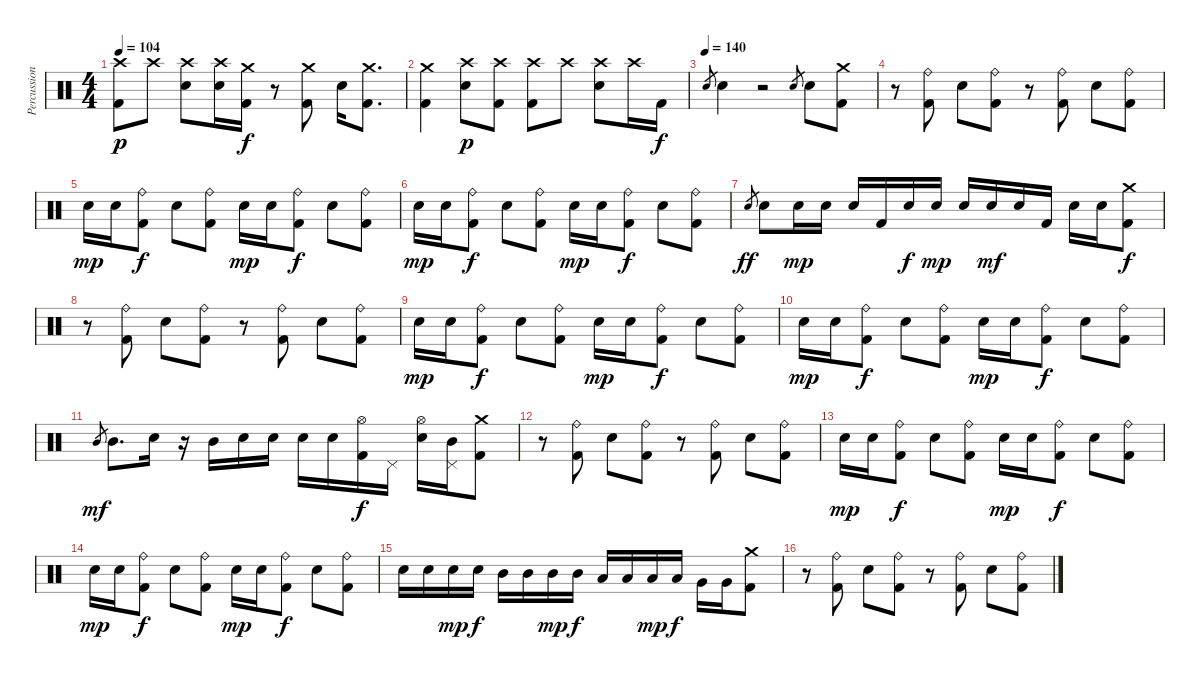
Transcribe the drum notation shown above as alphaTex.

\track ("Percussion" "Percussion") {instrument percussion}
\staff {score}
\articulation defaults
\ts (4 4)
\tempo 104
\clef neutral
\ks c
("Kick (hit) 2" "Crash high (hit)").8{dy p} "Crash high (hit)".8 ("Electric Snare (hit)" "Crash high (hit)").8 ("Electric Snare (hit)" "Crash high (hit)").16 ("Kick (hit) 2" "Crash medium (hit)").16{dy f} r.8 ("Kick (hit) 2" "Crash medium (hit)").8 "Electric Snare (hit)".16 ("Kick (hit) 2" "Crash medium (hit)").8{d} |
("Crash medium (hit)" "Kick (hit) 2").4 ("Electric Snare (hit)" "Crash high (hit)").8{dy p} ("Kick (hit) 2" "Crash high (hit)").8 ("Kick (hit) 2" "Crash high (hit)").8 "Crash high (hit)".8 ("Electric Snare (hit)" "Crash high (hit)").8 "Crash high (hit)".16 "Kick (hit) 2".16{dy f} |
\tempo (140)
"Electric Snare (hit)".8{gr} "Electric Snare (hit)".4 r.2 "Electric Snare (hit)".8{gr} "Electric Snare (hit)".8 ("Kick (hit) 2" "Crash medium (hit)").8 |
r.8 ("Kick (hit) 2" "Ride (bell)").8 "Electric Snare (hit)".8 ("Kick (hit) 2" "Ride (bell)").8 r.8 ("Kick (hit) 2" "Ride (bell)").8 "Electric Snare (hit)".8 ("Kick (hit) 2" "Ride (bell)").8 |
"Electric Snare (hit)".16{dy mp} "Electric Snare (hit)".16 ("Kick (hit) 2" "Ride (bell)").8{dy f} "Electric Snare (hit)".8 ("Kick (hit) 2" "Ride (bell)").8 "Electric Snare (hit)".16{dy mp} "Electric Snare (hit)".16 ("Kick (hit) 2" "Ride (bell)").8{dy f} "Electric Snare (hit)".8 ("Kick (hit) 2" "Ride (bell)").8 |
"Electric Snare (hit)".16{dy mp} "Electric Snare (hit)".16 ("Kick (hit) 2" "Ride (bell)").8{dy f} "Electric Snare (hit)".8 ("Kick (hit) 2" "Ride (bell)").8 "Electric Snare (hit)".16{dy mp} "Electric Snare (hit)".16 ("Kick (hit) 2" "Ride (bell)").8{dy f} "Electric Snare (hit)".8 ("Kick (hit) 2" "Ride (bell)").8 |
"Electric Snare (hit)".8{gr dy ff} "Electric Snare (hit)".8 "Electric Snare (hit)".16{dy mp} "Electric Snare (hit)".16 "Electric Snare (hit)".16 "Kick (hit) 2".16 "Electric Snare (hit)".16{dy f} "Electric Snare (hit)".16{dy mp} "Electric Snare (hit)".16 "Electric Snare (hit)".16{dy mf} "Electric Snare (hit)".16 "Kick (hit) 2".16 "Electric Snare (hit)".16 "Electric Snare (hit)".16 ("Kick (hit) 2" "Crash medium (hit)").8{dy f} |
r.8 ("Kick (hit) 2" "Ride (bell)").8 "Electric Snare (hit)".8 ("Kick (hit) 2" "Ride (bell)").8 r.8 ("Kick (hit) 2" "Ride (bell)").8 "Electric Snare (hit)".8 ("Kick (hit) 2" "Ride (bell)").8 |
"Electric Snare (hit)".16{dy mp} "Electric Snare (hit)".16 ("Kick (hit) 2" "Ride (bell)").8{dy f} "Electric Snare (hit)".8 ("Kick (hit) 2" "Ride (bell)").8 "Electric Snare (hit)".16{dy mp} "Electric Snare (hit)".16 ("Kick (hit) 2" "Ride (bell)").8{dy f} "Electric Snare (hit)".8 ("Kick (hit) 2" "Ride (bell)").8 |
"Electric Snare (hit)".16{dy mp} "Electric Snare (hit)".16 ("Kick (hit) 2" "Ride (bell)").8{dy f} "Electric Snare (hit)".8 ("Kick (hit) 2" "Ride (bell)").8 "Electric Snare (hit)".16{dy mp} "Electric Snare (hit)".16 ("Kick (hit) 2" "Ride (bell)").8{dy f} "Electric Snare (hit)".8 ("Kick (hit) 2" "Ride (bell)").8 |
"Mid Tom (hit)".8{gr dy mf} "Mid Tom (hit)".8{d} "Electric Snare (hit)".16 r.16 "Mid Tom (hit)".16 "Electric Snare (hit)".16 "Electric Snare (hit)".16 "Electric Snare (hit)".16 "Electric Snare (hit)".16 ("Kick (hit) 2" "Hi-Hat (open)").16{dy f} "Pedal Hi-Hat (hit)".16 ("Electric Snare (hit)" "Hi-Hat (open)").16 ("Mid Tom (hit)" "Pedal Hi-Hat (hit)").16 ("Kick (hit) 2" "Crash medium (hit)").8 |
r.8 ("Kick (hit) 2" "Ride (bell)").8 "Electric Snare (hit)".8 ("Kick (hit) 2" "Ride (bell)").8 r.8 ("Kick (hit) 2" "Ride (bell)").8 "Electric Snare (hit)".8 ("Kick (hit) 2" "Ride (bell)").8 |
"Electric Snare (hit)".16{dy mp} "Electric Snare (hit)".16 ("Kick (hit) 2" "Ride (bell)").8{dy f} "Electric Snare (hit)".8 ("Kick (hit) 2" "Ride (bell)").8 "Electric Snare (hit)".16{dy mp} "Electric Snare (hit)".16 ("Kick (hit) 2" "Ride (bell)").8{dy f} "Electric Snare (hit)".8 ("Kick (hit) 2" "Ride (bell)").8 |
"Electric Snare (hit)".16{dy mp} "Electric Snare (hit)".16 ("Kick (hit) 2" "Ride (bell)").8{dy f} "Electric Snare (hit)".8 ("Kick (hit) 2" "Ride (bell)").8 "Electric Snare (hit)".16{dy mp} "Electric Snare (hit)".16 ("Kick (hit) 2" "Ride (bell)").8{dy f} "Electric Snare (hit)".8 ("Kick (hit) 2" "Ride (bell)").8 |
"Electric Snare (hit)".16 "Electric Snare (hit)".16 "Electric Snare (hit)".16{dy mp} "Electric Snare (hit)".16{dy f} "Mid Tom (hit)".16 "Mid Tom (hit)".16 "Mid Tom (hit)".16{dy mp} "Mid Tom (hit)".16{dy f} "Low Tom (hit)".16 "Low Tom (hit)".16 "Low Tom (hit)".16{dy mp} "Low Tom (hit)".16{dy f} "Very Low Tom (hit)".16 "Very Low Tom (hit)".16 ("Kick (hit) 2" "Crash medium (hit)").8 |
r.8 ("Kick (hit) 2" "Ride (bell)").8 "Electric Snare (hit)".8 ("Kick (hit) 2" "Ride (bell)").8 r.8 ("Kick (hit) 2" "Ride (bell)").8 "Electric Snare (hit)".8 ("Kick (hit) 2" "Ride (bell)").8
